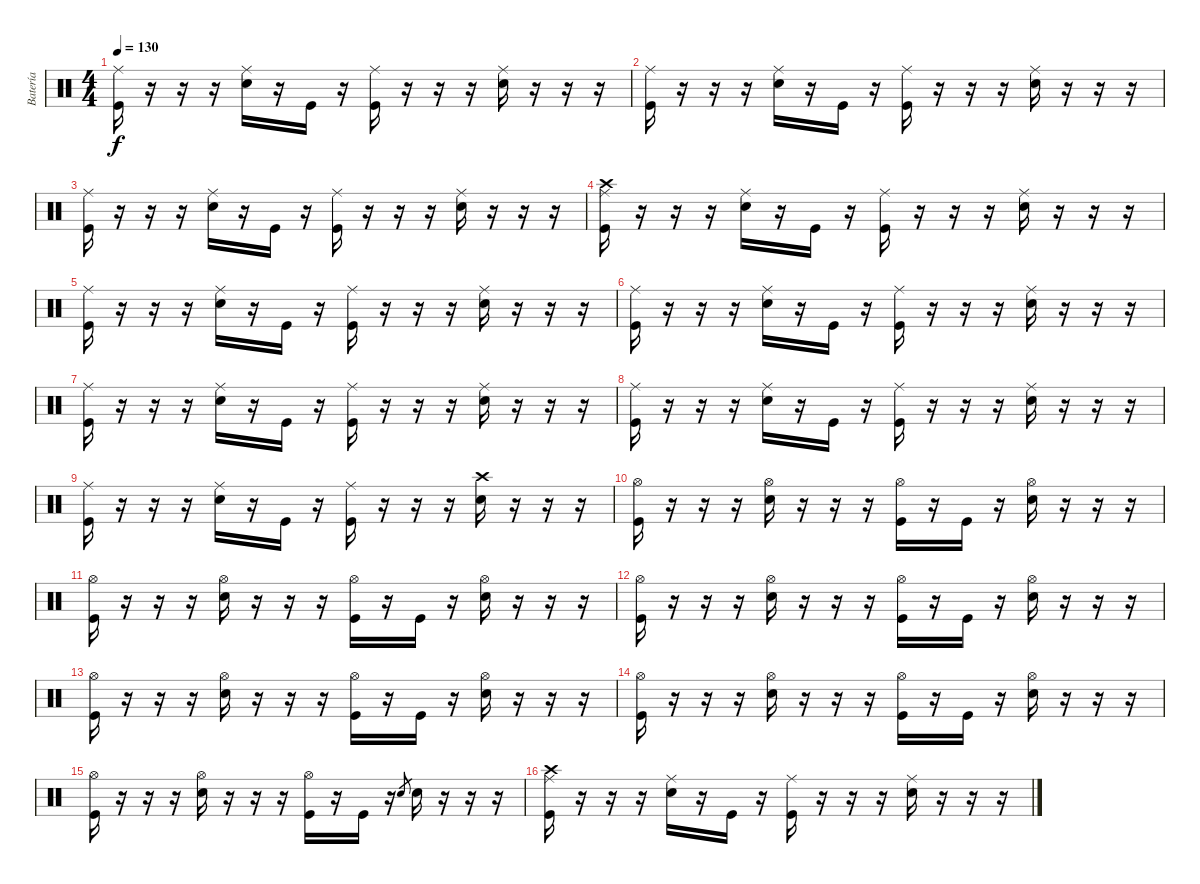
\track ("Batería" "Batería") {instrument percussion}
\staff {score}
\articulation defaults
\ts (4 4)
\tempo 130
\clef neutral
\ks c
("Ride (middle)" "Kick (hit)").16{dy f} r.16 r.16 r.16 ("Ride (middle)" "Snare (hit) 2").16 r.16 "Kick (hit)".16 r.16 ("Ride (middle)" "Kick (hit)").16 r.16 r.16 r.16 ("Ride (middle)" "Snare (hit) 2").16 r.16 r.16 r.16 |
("Ride (middle)" "Kick (hit)").16 r.16 r.16 r.16 ("Ride (middle)" "Snare (hit) 2").16 r.16 "Kick (hit)".16 r.16 ("Ride (middle)" "Kick (hit)").16 r.16 r.16 r.16 ("Ride (middle)" "Snare (hit) 2").16 r.16 r.16 r.16 |
("Ride (middle)" "Kick (hit)").16 r.16 r.16 r.16 ("Ride (middle)" "Snare (hit) 2").16 r.16 "Kick (hit)".16 r.16 ("Ride (middle)" "Kick (hit)").16 r.16 r.16 r.16 ("Ride (middle)" "Snare (hit) 2").16 r.16 r.16 r.16 |
("Crash high (hit)" "Ride (middle)" "Kick (hit)").16 r.16 r.16 r.16 ("Ride (middle)" "Snare (hit) 2").16 r.16 "Kick (hit)".16 r.16 ("Ride (middle)" "Kick (hit)").16 r.16 r.16 r.16 ("Ride (middle)" "Snare (hit) 2").16 r.16 r.16 r.16 |
("Ride (middle)" "Kick (hit)").16 r.16 r.16 r.16 ("Ride (middle)" "Snare (hit) 2").16 r.16 "Kick (hit)".16 r.16 ("Ride (middle)" "Kick (hit)").16 r.16 r.16 r.16 ("Ride (middle)" "Snare (hit) 2").16 r.16 r.16 r.16 |
("Ride (middle)" "Kick (hit)").16 r.16 r.16 r.16 ("Ride (middle)" "Snare (hit) 2").16 r.16 "Kick (hit)".16 r.16 ("Ride (middle)" "Kick (hit)").16 r.16 r.16 r.16 ("Ride (middle)" "Snare (hit) 2").16 r.16 r.16 r.16 |
("Ride (middle)" "Kick (hit)").16 r.16 r.16 r.16 ("Ride (middle)" "Snare (hit) 2").16 r.16 "Kick (hit)".16 r.16 ("Ride (middle)" "Kick (hit)").16 r.16 r.16 r.16 ("Ride (middle)" "Snare (hit) 2").16 r.16 r.16 r.16 |
("Ride (middle)" "Kick (hit)").16 r.16 r.16 r.16 ("Ride (middle)" "Snare (hit) 2").16 r.16 "Kick (hit)".16 r.16 ("Ride (middle)" "Kick (hit)").16 r.16 r.16 r.16 ("Ride (middle)" "Snare (hit) 2").16 r.16 r.16 r.16 |
("Ride (middle)" "Kick (hit)").16 r.16 r.16 r.16 ("Ride (middle)" "Snare (hit) 2").16 r.16 "Kick (hit)".16 r.16 ("Ride (middle)" "Kick (hit)").16 r.16 r.16 r.16 ("Crash high (hit)" "Snare (hit) 2").16 r.16 r.16 r.16 |
("Hi-Hat (open)" "Kick (hit)").16 r.16 r.16 r.16 ("Hi-Hat (open)" "Snare (hit) 2").16 r.16 r.16 r.16 ("Hi-Hat (open)" "Kick (hit)").16 r.16 "Kick (hit)".16 r.16 ("Hi-Hat (open)" "Snare (hit) 2").16 r.16 r.16 r.16 |
("Hi-Hat (open)" "Kick (hit)").16 r.16 r.16 r.16 ("Hi-Hat (open)" "Snare (hit) 2").16 r.16 r.16 r.16 ("Hi-Hat (open)" "Kick (hit)").16 r.16 "Kick (hit)".16 r.16 ("Hi-Hat (open)" "Snare (hit) 2").16 r.16 r.16 r.16 |
("Hi-Hat (open)" "Kick (hit)").16 r.16 r.16 r.16 ("Hi-Hat (open)" "Snare (hit) 2").16 r.16 r.16 r.16 ("Hi-Hat (open)" "Kick (hit)").16 r.16 "Kick (hit)".16 r.16 ("Hi-Hat (open)" "Snare (hit) 2").16 r.16 r.16 r.16 |
("Hi-Hat (open)" "Kick (hit)").16 r.16 r.16 r.16 ("Hi-Hat (open)" "Snare (hit) 2").16 r.16 r.16 r.16 ("Hi-Hat (open)" "Kick (hit)").16 r.16 "Kick (hit)".16 r.16 ("Hi-Hat (open)" "Snare (hit) 2").16 r.16 r.16 r.16 |
("Hi-Hat (open)" "Kick (hit)").16 r.16 r.16 r.16 ("Hi-Hat (open)" "Snare (hit) 2").16 r.16 r.16 r.16 ("Hi-Hat (open)" "Kick (hit)").16 r.16 "Kick (hit)".16 r.16 ("Hi-Hat (open)" "Snare (hit) 2").16 r.16 r.16 r.16 |
("Hi-Hat (open)" "Kick (hit)").16 r.16 r.16 r.16 ("Hi-Hat (open)" "Snare (hit) 2").16 r.16 r.16 r.16 ("Hi-Hat (open)" "Kick (hit)").16 r.16 "Kick (hit)".16 r.16 "Snare (hit) 2".8{gr} "Snare (hit) 2".16 r.16 r.16 r.16 |
("Crash high (hit)" "Ride (middle)" "Kick (hit)").16 r.16 r.16 r.16 ("Ride (middle)" "Snare (hit) 2").16 r.16 "Kick (hit)".16 r.16 ("Ride (middle)" "Kick (hit)").16 r.16 r.16 r.16 ("Ride (middle)" "Snare (hit) 2").16 r.16 r.16 r.16
